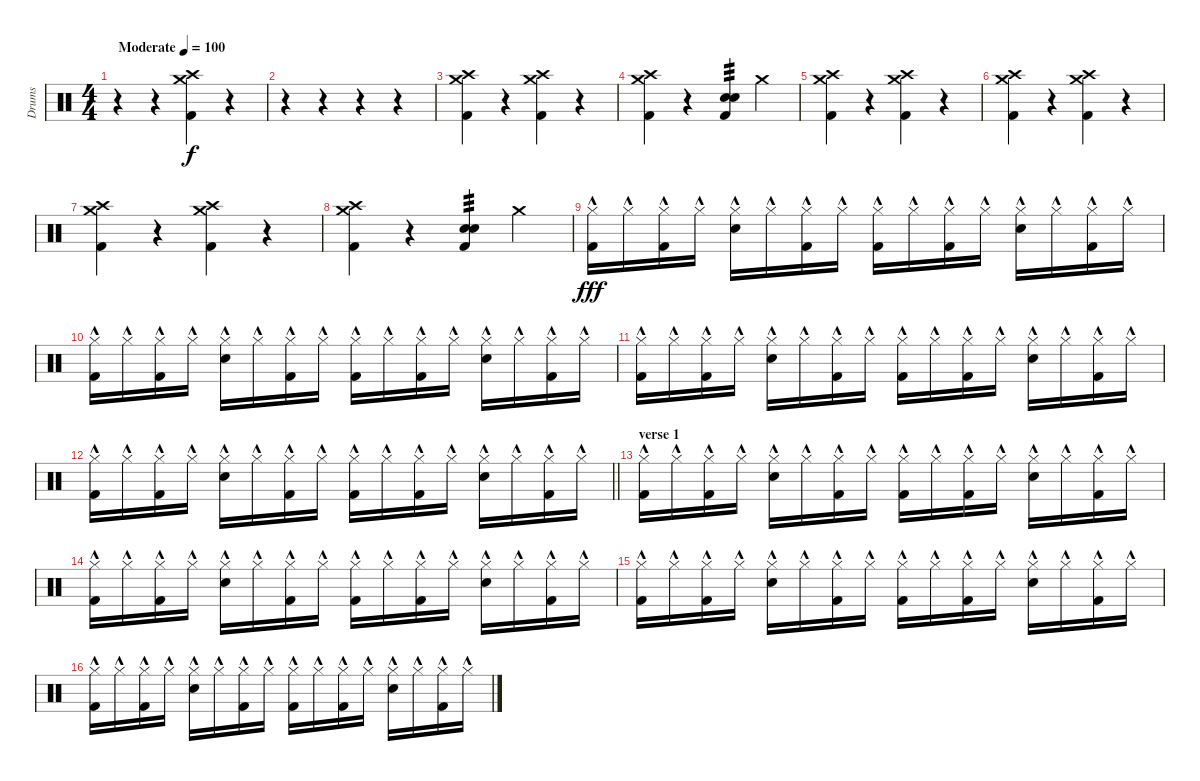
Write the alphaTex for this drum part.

\track ("Drums" "Drums") {instrument percussion}
\staff {score}
\articulation defaults
\ts (4 4)
\tempo (100 "Moderate")
\clef neutral
\ks c
r.4{dy f} r.4 ("Crash high (hit)" "Crash medium (hit)" "Kick (hit) 2").4 r.4 |
r.4 r.4 r.4 r.4 |
("Crash high (hit)" "Crash medium (hit)" "Kick (hit) 2").4 r.4 ("Crash high (hit)" "Crash medium (hit)" "Kick (hit) 2").4 r.4 |
("Crash high (hit)" "Crash medium (hit)" "Kick (hit) 2").4 r.4 ("Snare (hit) 2" "Electric Snare (hit)" "Kick (hit) 2").4{tp 3} "Crash medium (hit)".4 |
("Crash high (hit)" "Crash medium (hit)" "Kick (hit) 2").4 r.4 ("Crash high (hit)" "Crash medium (hit)" "Kick (hit) 2").4 r.4 |
("Crash high (hit)" "Crash medium (hit)" "Kick (hit) 2").4 r.4 ("Crash high (hit)" "Crash medium (hit)" "Kick (hit) 2").4 r.4 |
("Crash high (hit)" "Crash medium (hit)" "Kick (hit) 2").4 r.4 ("Crash high (hit)" "Crash medium (hit)" "Kick (hit) 2").4 r.4 |
("Crash high (hit)" "Crash medium (hit)" "Kick (hit) 2").4 r.4 ("Snare (hit) 2" "Electric Snare (hit)" "Kick (hit) 2").4{tp 3} "Crash medium (hit)".4 |
("Hi-Hat (closed)"{hac} "Kick (hit) 2").16{dy fff} "Hi-Hat (closed)"{hac}.16 ("Hi-Hat (closed)"{hac} "Kick (hit) 2").16 "Hi-Hat (closed)"{hac}.16 ("Hi-Hat (closed)"{hac} "Electric Snare (hit)"{hac}).16 "Hi-Hat (closed)"{hac}.16 ("Hi-Hat (closed)"{hac} "Kick (hit) 2").16 "Hi-Hat (closed)"{hac}.16 ("Hi-Hat (closed)"{hac} "Kick (hit) 2").16 "Hi-Hat (closed)"{hac}.16 ("Hi-Hat (closed)"{hac} "Kick (hit) 2").16 "Hi-Hat (closed)"{hac}.16 ("Hi-Hat (closed)"{hac} "Electric Snare (hit)"{hac}).16 "Hi-Hat (closed)"{hac}.16 ("Hi-Hat (closed)"{hac} "Kick (hit) 2").16 "Hi-Hat (closed)"{hac}.16 |
("Hi-Hat (closed)"{hac} "Kick (hit) 2").16 "Hi-Hat (closed)"{hac}.16 ("Hi-Hat (closed)"{hac} "Kick (hit) 2").16 "Hi-Hat (closed)"{hac}.16 ("Hi-Hat (closed)"{hac} "Electric Snare (hit)"{hac}).16 "Hi-Hat (closed)"{hac}.16 ("Hi-Hat (closed)"{hac} "Kick (hit) 2").16 "Hi-Hat (closed)"{hac}.16 ("Hi-Hat (closed)"{hac} "Kick (hit) 2").16 "Hi-Hat (closed)"{hac}.16 ("Hi-Hat (closed)"{hac} "Kick (hit) 2").16 "Hi-Hat (closed)"{hac}.16 ("Hi-Hat (closed)"{hac} "Electric Snare (hit)"{hac}).16 "Hi-Hat (closed)"{hac}.16 ("Hi-Hat (closed)"{hac} "Kick (hit) 2").16 "Hi-Hat (closed)"{hac}.16 |
("Hi-Hat (closed)"{hac} "Kick (hit) 2").16 "Hi-Hat (closed)"{hac}.16 ("Hi-Hat (closed)"{hac} "Kick (hit) 2").16 "Hi-Hat (closed)"{hac}.16 ("Hi-Hat (closed)"{hac} "Electric Snare (hit)"{hac}).16 "Hi-Hat (closed)"{hac}.16 ("Hi-Hat (closed)"{hac} "Kick (hit) 2").16 "Hi-Hat (closed)"{hac}.16 ("Hi-Hat (closed)"{hac} "Kick (hit) 2").16 "Hi-Hat (closed)"{hac}.16 ("Hi-Hat (closed)"{hac} "Kick (hit) 2").16 "Hi-Hat (closed)"{hac}.16 ("Hi-Hat (closed)"{hac} "Electric Snare (hit)"{hac}).16 "Hi-Hat (closed)"{hac}.16 ("Hi-Hat (closed)"{hac} "Kick (hit) 2").16 "Hi-Hat (closed)"{hac}.16 |
\barLineRight lightlight
("Hi-Hat (closed)"{hac} "Kick (hit) 2").16 "Hi-Hat (closed)"{hac}.16 ("Hi-Hat (closed)"{hac} "Kick (hit) 2").16 "Hi-Hat (closed)"{hac}.16 ("Hi-Hat (closed)"{hac} "Electric Snare (hit)"{hac}).16 "Hi-Hat (closed)"{hac}.16 ("Hi-Hat (closed)"{hac} "Kick (hit) 2").16 "Hi-Hat (closed)"{hac}.16 ("Hi-Hat (closed)"{hac} "Kick (hit) 2").16 "Hi-Hat (closed)"{hac}.16 ("Hi-Hat (closed)"{hac} "Kick (hit) 2").16 "Hi-Hat (closed)"{hac}.16 ("Hi-Hat (closed)"{hac} "Electric Snare (hit)"{hac}).16 "Hi-Hat (closed)"{hac}.16 ("Hi-Hat (closed)"{hac} "Kick (hit) 2").16 "Hi-Hat (closed)"{hac}.16 |
\section ("" "verse 1")
("Hi-Hat (closed)"{hac} "Kick (hit) 2").16 "Hi-Hat (closed)"{hac}.16 ("Hi-Hat (closed)"{hac} "Kick (hit) 2").16 "Hi-Hat (closed)"{hac}.16 ("Hi-Hat (closed)"{hac} "Electric Snare (hit)"{hac}).16 "Hi-Hat (closed)"{hac}.16 ("Hi-Hat (closed)"{hac} "Kick (hit) 2").16 "Hi-Hat (closed)"{hac}.16 ("Hi-Hat (closed)"{hac} "Kick (hit) 2").16 "Hi-Hat (closed)"{hac}.16 ("Hi-Hat (closed)"{hac} "Kick (hit) 2").16 "Hi-Hat (closed)"{hac}.16 ("Hi-Hat (closed)"{hac} "Electric Snare (hit)"{hac}).16 "Hi-Hat (closed)"{hac}.16 ("Hi-Hat (closed)"{hac} "Kick (hit) 2").16 "Hi-Hat (closed)"{hac}.16 |
("Hi-Hat (closed)"{hac} "Kick (hit) 2").16 "Hi-Hat (closed)"{hac}.16 ("Hi-Hat (closed)"{hac} "Kick (hit) 2").16 "Hi-Hat (closed)"{hac}.16 ("Hi-Hat (closed)"{hac} "Electric Snare (hit)"{hac}).16 "Hi-Hat (closed)"{hac}.16 ("Hi-Hat (closed)"{hac} "Kick (hit) 2").16 "Hi-Hat (closed)"{hac}.16 ("Hi-Hat (closed)"{hac} "Kick (hit) 2").16 "Hi-Hat (closed)"{hac}.16 ("Hi-Hat (closed)"{hac} "Kick (hit) 2").16 "Hi-Hat (closed)"{hac}.16 ("Hi-Hat (closed)"{hac} "Electric Snare (hit)"{hac}).16 "Hi-Hat (closed)"{hac}.16 ("Hi-Hat (closed)"{hac} "Kick (hit) 2").16 "Hi-Hat (closed)"{hac}.16 |
("Hi-Hat (closed)"{hac} "Kick (hit) 2").16 "Hi-Hat (closed)"{hac}.16 ("Hi-Hat (closed)"{hac} "Kick (hit) 2").16 "Hi-Hat (closed)"{hac}.16 ("Hi-Hat (closed)"{hac} "Electric Snare (hit)"{hac}).16 "Hi-Hat (closed)"{hac}.16 ("Hi-Hat (closed)"{hac} "Kick (hit) 2").16 "Hi-Hat (closed)"{hac}.16 ("Hi-Hat (closed)"{hac} "Kick (hit) 2").16 "Hi-Hat (closed)"{hac}.16 ("Hi-Hat (closed)"{hac} "Kick (hit) 2").16 "Hi-Hat (closed)"{hac}.16 ("Hi-Hat (closed)"{hac} "Electric Snare (hit)"{hac}).16 "Hi-Hat (closed)"{hac}.16 ("Hi-Hat (closed)"{hac} "Kick (hit) 2").16 "Hi-Hat (closed)"{hac}.16 |
("Hi-Hat (closed)"{hac} "Kick (hit) 2").16 "Hi-Hat (closed)"{hac}.16 ("Hi-Hat (closed)"{hac} "Kick (hit) 2").16 "Hi-Hat (closed)"{hac}.16 ("Hi-Hat (closed)"{hac} "Electric Snare (hit)"{hac}).16 "Hi-Hat (closed)"{hac}.16 ("Hi-Hat (closed)"{hac} "Kick (hit) 2").16 "Hi-Hat (closed)"{hac}.16 ("Hi-Hat (closed)"{hac} "Kick (hit) 2").16 "Hi-Hat (closed)"{hac}.16 ("Hi-Hat (closed)"{hac} "Kick (hit) 2").16 "Hi-Hat (closed)"{hac}.16 ("Hi-Hat (closed)"{hac} "Electric Snare (hit)"{hac}).16 "Hi-Hat (closed)"{hac}.16 ("Hi-Hat (closed)"{hac} "Kick (hit) 2").16 "Hi-Hat (closed)"{hac}.16
